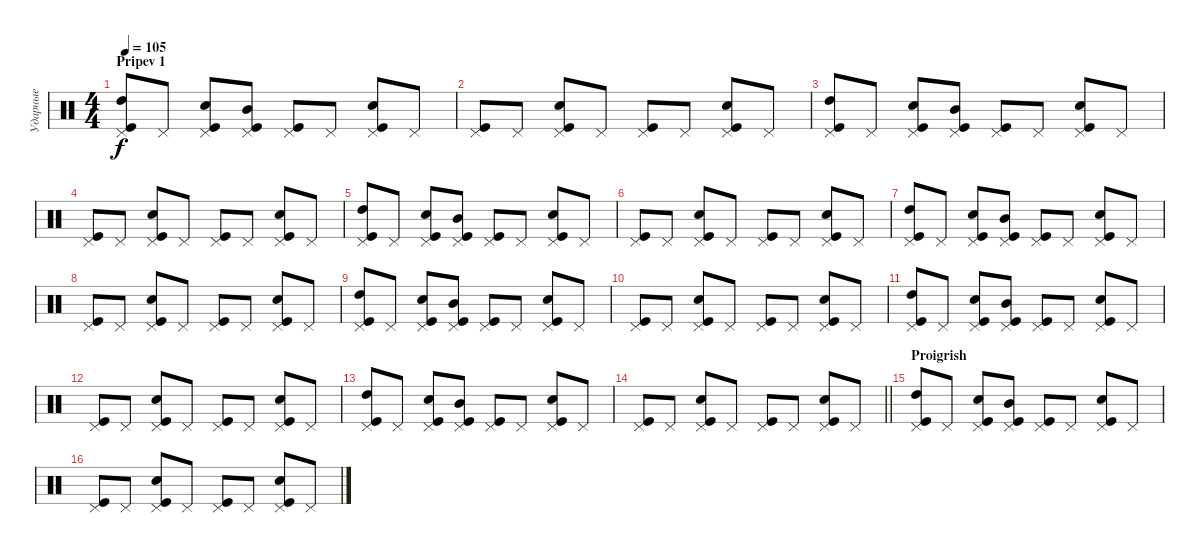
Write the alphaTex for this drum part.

\track ("Ударные" "Ударные") {instrument percussion}
\staff {score}
\articulation defaults
\ts (4 4)
\section ("" "Pripev 1")
\tempo 105
\clef neutral
\ks c
("Pedal Hi-Hat (hit)" "Kick (hit)" "High Tom (hit)").8{dy f} "Pedal Hi-Hat (hit)".8 ("Pedal Hi-Hat (hit)" "Kick (hit)" "Snare (hit) 2").8 ("Pedal Hi-Hat (hit)" "Kick (hit)" "Mid Tom (hit)").8 ("Pedal Hi-Hat (hit)" "Kick (hit)").8 "Pedal Hi-Hat (hit)".8 ("Pedal Hi-Hat (hit)" "Kick (hit)" "Snare (hit) 2").8 "Pedal Hi-Hat (hit)".8 |
("Pedal Hi-Hat (hit)" "Kick (hit)").8 "Pedal Hi-Hat (hit)".8 ("Pedal Hi-Hat (hit)" "Kick (hit)" "Snare (hit) 2").8 "Pedal Hi-Hat (hit)".8 ("Pedal Hi-Hat (hit)" "Kick (hit)").8 "Pedal Hi-Hat (hit)".8 ("Pedal Hi-Hat (hit)" "Kick (hit)" "Snare (hit) 2").8 "Pedal Hi-Hat (hit)".8 |
("Pedal Hi-Hat (hit)" "Kick (hit)" "High Tom (hit)").8 "Pedal Hi-Hat (hit)".8 ("Pedal Hi-Hat (hit)" "Kick (hit)" "Snare (hit) 2").8 ("Pedal Hi-Hat (hit)" "Kick (hit)" "Mid Tom (hit)").8 ("Pedal Hi-Hat (hit)" "Kick (hit)").8 "Pedal Hi-Hat (hit)".8 ("Pedal Hi-Hat (hit)" "Kick (hit)" "Snare (hit) 2").8 "Pedal Hi-Hat (hit)".8 |
("Pedal Hi-Hat (hit)" "Kick (hit)").8 "Pedal Hi-Hat (hit)".8 ("Pedal Hi-Hat (hit)" "Kick (hit)" "Snare (hit) 2").8 "Pedal Hi-Hat (hit)".8 ("Pedal Hi-Hat (hit)" "Kick (hit)").8 "Pedal Hi-Hat (hit)".8 ("Pedal Hi-Hat (hit)" "Kick (hit)" "Snare (hit) 2").8 "Pedal Hi-Hat (hit)".8 |
("Pedal Hi-Hat (hit)" "Kick (hit)" "High Tom (hit)").8 "Pedal Hi-Hat (hit)".8 ("Pedal Hi-Hat (hit)" "Kick (hit)" "Snare (hit) 2").8 ("Pedal Hi-Hat (hit)" "Kick (hit)" "Mid Tom (hit)").8 ("Pedal Hi-Hat (hit)" "Kick (hit)").8 "Pedal Hi-Hat (hit)".8 ("Pedal Hi-Hat (hit)" "Kick (hit)" "Snare (hit) 2").8 "Pedal Hi-Hat (hit)".8 |
("Pedal Hi-Hat (hit)" "Kick (hit)").8 "Pedal Hi-Hat (hit)".8 ("Pedal Hi-Hat (hit)" "Kick (hit)" "Snare (hit) 2").8 "Pedal Hi-Hat (hit)".8 ("Pedal Hi-Hat (hit)" "Kick (hit)").8 "Pedal Hi-Hat (hit)".8 ("Pedal Hi-Hat (hit)" "Kick (hit)" "Snare (hit) 2").8 "Pedal Hi-Hat (hit)".8 |
("Pedal Hi-Hat (hit)" "Kick (hit)" "High Tom (hit)").8 "Pedal Hi-Hat (hit)".8 ("Pedal Hi-Hat (hit)" "Kick (hit)" "Snare (hit) 2").8 ("Pedal Hi-Hat (hit)" "Kick (hit)" "Mid Tom (hit)").8 ("Pedal Hi-Hat (hit)" "Kick (hit)").8 "Pedal Hi-Hat (hit)".8 ("Pedal Hi-Hat (hit)" "Kick (hit)" "Snare (hit) 2").8 "Pedal Hi-Hat (hit)".8 |
("Pedal Hi-Hat (hit)" "Kick (hit)").8 "Pedal Hi-Hat (hit)".8 ("Pedal Hi-Hat (hit)" "Kick (hit)" "Snare (hit) 2").8 "Pedal Hi-Hat (hit)".8 ("Pedal Hi-Hat (hit)" "Kick (hit)").8 "Pedal Hi-Hat (hit)".8 ("Pedal Hi-Hat (hit)" "Kick (hit)" "Snare (hit) 2").8 "Pedal Hi-Hat (hit)".8 |
("Pedal Hi-Hat (hit)" "Kick (hit)" "High Tom (hit)").8 "Pedal Hi-Hat (hit)".8 ("Pedal Hi-Hat (hit)" "Kick (hit)" "Snare (hit) 2").8 ("Pedal Hi-Hat (hit)" "Kick (hit)" "Mid Tom (hit)").8 ("Pedal Hi-Hat (hit)" "Kick (hit)").8 "Pedal Hi-Hat (hit)".8 ("Pedal Hi-Hat (hit)" "Kick (hit)" "Snare (hit) 2").8 "Pedal Hi-Hat (hit)".8 |
("Pedal Hi-Hat (hit)" "Kick (hit)").8 "Pedal Hi-Hat (hit)".8 ("Pedal Hi-Hat (hit)" "Kick (hit)" "Snare (hit) 2").8 "Pedal Hi-Hat (hit)".8 ("Pedal Hi-Hat (hit)" "Kick (hit)").8 "Pedal Hi-Hat (hit)".8 ("Pedal Hi-Hat (hit)" "Kick (hit)" "Snare (hit) 2").8 "Pedal Hi-Hat (hit)".8 |
("Pedal Hi-Hat (hit)" "Kick (hit)" "High Tom (hit)").8 "Pedal Hi-Hat (hit)".8 ("Pedal Hi-Hat (hit)" "Kick (hit)" "Snare (hit) 2").8 ("Pedal Hi-Hat (hit)" "Kick (hit)" "Mid Tom (hit)").8 ("Pedal Hi-Hat (hit)" "Kick (hit)").8 "Pedal Hi-Hat (hit)".8 ("Pedal Hi-Hat (hit)" "Kick (hit)" "Snare (hit) 2").8 "Pedal Hi-Hat (hit)".8 |
("Pedal Hi-Hat (hit)" "Kick (hit)").8 "Pedal Hi-Hat (hit)".8 ("Pedal Hi-Hat (hit)" "Kick (hit)" "Snare (hit) 2").8 "Pedal Hi-Hat (hit)".8 ("Pedal Hi-Hat (hit)" "Kick (hit)").8 "Pedal Hi-Hat (hit)".8 ("Pedal Hi-Hat (hit)" "Kick (hit)" "Snare (hit) 2").8 "Pedal Hi-Hat (hit)".8 |
("Pedal Hi-Hat (hit)" "Kick (hit)" "High Tom (hit)").8 "Pedal Hi-Hat (hit)".8 ("Pedal Hi-Hat (hit)" "Kick (hit)" "Snare (hit) 2").8 ("Pedal Hi-Hat (hit)" "Kick (hit)" "Mid Tom (hit)").8 ("Pedal Hi-Hat (hit)" "Kick (hit)").8 "Pedal Hi-Hat (hit)".8 ("Pedal Hi-Hat (hit)" "Kick (hit)" "Snare (hit) 2").8 "Pedal Hi-Hat (hit)".8 |
\barLineRight lightlight
("Pedal Hi-Hat (hit)" "Kick (hit)").8 "Pedal Hi-Hat (hit)".8 ("Pedal Hi-Hat (hit)" "Kick (hit)" "Snare (hit) 2").8 "Pedal Hi-Hat (hit)".8 ("Pedal Hi-Hat (hit)" "Kick (hit)").8 "Pedal Hi-Hat (hit)".8 ("Pedal Hi-Hat (hit)" "Kick (hit)" "Snare (hit) 2").8 "Pedal Hi-Hat (hit)".8 |
\section ("" "Proigrish")
("Pedal Hi-Hat (hit)" "Kick (hit)" "High Tom (hit)").8 "Pedal Hi-Hat (hit)".8 ("Pedal Hi-Hat (hit)" "Kick (hit)" "Snare (hit) 2").8 ("Pedal Hi-Hat (hit)" "Kick (hit)" "Mid Tom (hit)").8 ("Pedal Hi-Hat (hit)" "Kick (hit)").8 "Pedal Hi-Hat (hit)".8 ("Pedal Hi-Hat (hit)" "Kick (hit)" "Snare (hit) 2").8 "Pedal Hi-Hat (hit)".8 |
("Pedal Hi-Hat (hit)" "Kick (hit)").8 "Pedal Hi-Hat (hit)".8 ("Pedal Hi-Hat (hit)" "Kick (hit)" "Snare (hit) 2").8 "Pedal Hi-Hat (hit)".8 ("Pedal Hi-Hat (hit)" "Kick (hit)").8 "Pedal Hi-Hat (hit)".8 ("Pedal Hi-Hat (hit)" "Kick (hit)" "Snare (hit) 2").8 "Pedal Hi-Hat (hit)".8
